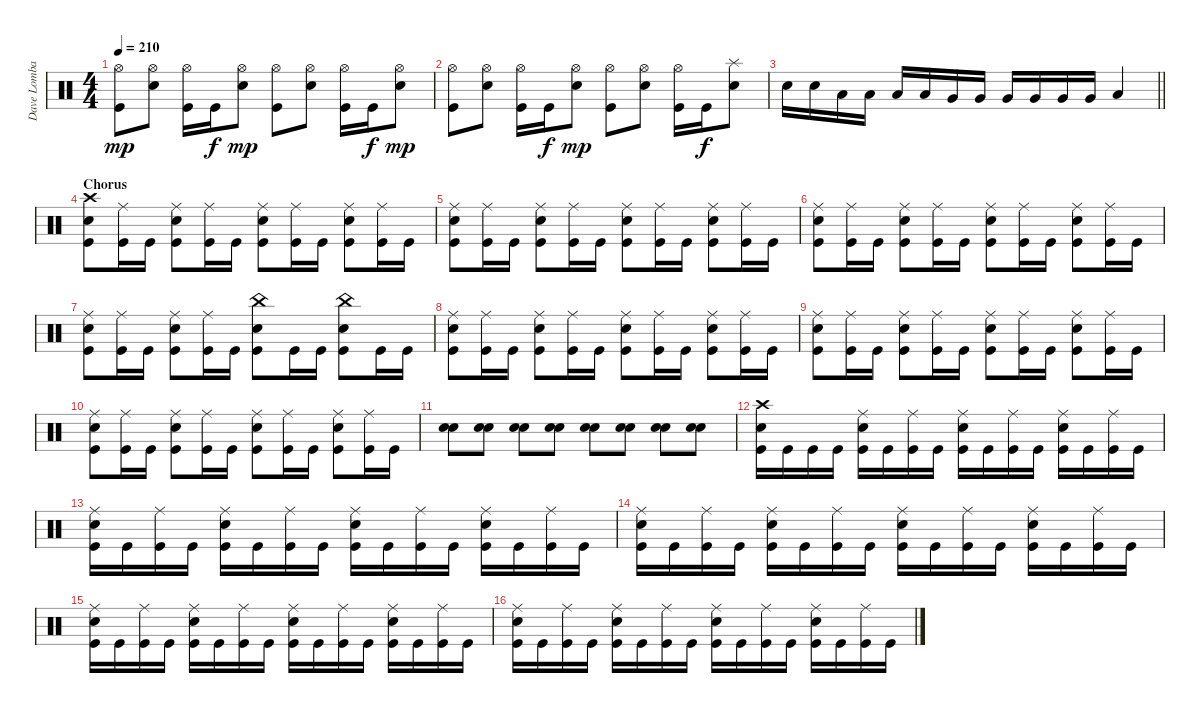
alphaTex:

\track ("Dave Lombardo" "Dave Lomba") {instrument percussion}
\staff {score}
\articulation defaults
\ts (4 4)
\tempo 210
\clef neutral
\ks c
("Hi-Hat (open)" "Kick (hit)").8{dy mp} ("Hi-Hat (open)" "Electric Snare (hit)").8 ("Hi-Hat (open)" "Kick (hit)").16 "Kick (hit)".16{dy f} ("Hi-Hat (open)" "Electric Snare (hit)").8{dy mp} ("Hi-Hat (open)" "Kick (hit)").8 ("Hi-Hat (open)" "Electric Snare (hit)").8 ("Hi-Hat (open)" "Kick (hit)").16 "Kick (hit)".16{dy f} ("Hi-Hat (open)" "Electric Snare (hit)").8{dy mp} |
("Hi-Hat (open)" "Kick (hit)").8 ("Hi-Hat (open)" "Electric Snare (hit)").8 ("Hi-Hat (open)" "Kick (hit)").16 "Kick (hit)".16{dy f} ("Hi-Hat (open)" "Electric Snare (hit)").8{dy mp} ("Hi-Hat (open)" "Kick (hit)").8 ("Hi-Hat (open)" "Electric Snare (hit)").8 ("Hi-Hat (open)" "Kick (hit)").16 "Kick (hit)".16{dy f} ("Splash (hit)" "Electric Snare (hit)").8 |
\barLineRight lightlight "Electric Snare (hit)".16 "Electric Snare (hit)".16 "Low Tom (hit)".16 "Low Tom (hit)".16 "Low Tom (hit)".16 "Low Tom (hit)".16 "Very Low Tom (hit)".16 "Very Low Tom (hit)".16 "Very Low Tom (hit)".16 "Very Low Tom (hit)".16 "Very Low Tom (hit)".16 "Very Low Tom (hit)".16 "Low Floor Tom (hit)".4
|
\section ("" "Chorus")
("Crash high (hit)" "Electric Snare (hit)" "Kick (hit)").8 ("Ride (middle)" "Kick (hit)").16 "Kick (hit)".16 ("Ride (middle)" "Electric Snare (hit)" "Kick (hit)").8 ("Ride (middle)" "Kick (hit)").16 "Kick (hit)".16 ("Ride (middle)" "Electric Snare (hit)" "Kick (hit)").8 ("Ride (middle)" "Kick (hit)").16 "Kick (hit)".16 ("Ride (middle)" "Electric Snare (hit)" "Kick (hit)").8 ("Ride (middle)" "Kick (hit)").16 "Kick (hit)".16 |
("Ride (middle)" "Electric Snare (hit)" "Kick (hit)").8 ("Ride (middle)" "Kick (hit)").16 "Kick (hit)".16 ("Ride (middle)" "Electric Snare (hit)" "Kick (hit)").8 ("Ride (middle)" "Kick (hit)").16 "Kick (hit)".16 ("Ride (middle)" "Electric Snare (hit)" "Kick (hit)").8 ("Ride (middle)" "Kick (hit)").16 "Kick (hit)".16 ("Ride (middle)" "Electric Snare (hit)" "Kick (hit)").8 ("Ride (middle)" "Kick (hit)").16 "Kick (hit)".16 |
("Ride (middle)" "Electric Snare (hit)" "Kick (hit)").8 ("Ride (middle)" "Kick (hit)").16 "Kick (hit)".16 ("Ride (middle)" "Electric Snare (hit)" "Kick (hit)").8 ("Ride (middle)" "Kick (hit)").16 "Kick (hit)".16 ("Ride (middle)" "Electric Snare (hit)" "Kick (hit)").8 ("Ride (middle)" "Kick (hit)").16 "Kick (hit)".16 ("Ride (middle)" "Electric Snare (hit)" "Kick (hit)").8 ("Ride (middle)" "Kick (hit)").16 "Kick (hit)".16 |
("Ride (middle)" "Electric Snare (hit)" "Kick (hit)").8 ("Ride (middle)" "Kick (hit)").16 "Kick (hit)".16 ("Ride (middle)" "Electric Snare (hit)" "Kick (hit)").8 ("Ride (middle)" "Kick (hit)").16 "Kick (hit)".16 ("China (hit)" "Electric Snare (hit)" "Kick (hit)").8 "Kick (hit)".16 "Kick (hit)".16 ("China (hit)" "Electric Snare (hit)" "Kick (hit)").8 "Kick (hit)".16 "Kick (hit)".16 |
("Ride (middle)" "Electric Snare (hit)" "Kick (hit)").8 ("Ride (middle)" "Kick (hit)").16 "Kick (hit)".16 ("Ride (middle)" "Electric Snare (hit)" "Kick (hit)").8 ("Ride (middle)" "Kick (hit)").16 "Kick (hit)".16 ("Ride (middle)" "Electric Snare (hit)" "Kick (hit)").8 ("Ride (middle)" "Kick (hit)").16 "Kick (hit)".16 ("Ride (middle)" "Electric Snare (hit)" "Kick (hit)").8 ("Ride (middle)" "Kick (hit)").16 "Kick (hit)".16 |
("Ride (middle)" "Electric Snare (hit)" "Kick (hit)").8 ("Ride (middle)" "Kick (hit)").16 "Kick (hit)".16 ("Ride (middle)" "Electric Snare (hit)" "Kick (hit)").8 ("Ride (middle)" "Kick (hit)").16 "Kick (hit)".16 ("Ride (middle)" "Electric Snare (hit)" "Kick (hit)").8 ("Ride (middle)" "Kick (hit)").16 "Kick (hit)".16 ("Ride (middle)" "Electric Snare (hit)" "Kick (hit)").8 ("Ride (middle)" "Kick (hit)").16 "Kick (hit)".16 |
("Ride (middle)" "Electric Snare (hit)" "Kick (hit)").8 ("Ride (middle)" "Kick (hit)").16 "Kick (hit)".16 ("Ride (middle)" "Electric Snare (hit)" "Kick (hit)").8 ("Ride (middle)" "Kick (hit)").16 "Kick (hit)".16 ("Ride (middle)" "Electric Snare (hit)" "Kick (hit)").8 ("Ride (middle)" "Kick (hit)").16 "Kick (hit)".16 ("Ride (middle)" "Electric Snare (hit)" "Kick (hit)").8 ("Ride (middle)" "Kick (hit)").16 "Kick (hit)".16 |
("Snare (hit) 2" "Electric Snare (hit)").8 ("Snare (hit) 2" "Electric Snare (hit)").8 ("Snare (hit) 2" "Electric Snare (hit)").8 ("Snare (hit) 2" "Electric Snare (hit)").8 ("Snare (hit) 2" "Electric Snare (hit)").8 ("Snare (hit) 2" "Electric Snare (hit)").8 ("Snare (hit) 2" "Electric Snare (hit)").8 ("Snare (hit) 2" "Electric Snare (hit)").8 |
("Crash high (hit)" "Electric Snare (hit)" "Kick (hit)").16 "Kick (hit)".16 "Kick (hit)".16 "Kick (hit)".16 ("Ride (middle)" "Electric Snare (hit)" "Kick (hit)").16 "Kick (hit)".16 ("Ride (middle)" "Kick (hit)").16 "Kick (hit)".16 ("Ride (middle)" "Electric Snare (hit)" "Kick (hit)").16 "Kick (hit)".16 ("Ride (middle)" "Kick (hit)").16 "Kick (hit)".16 ("Ride (middle)" "Electric Snare (hit)" "Kick (hit)").16 "Kick (hit)".16 ("Ride (middle)" "Kick (hit)").16 "Kick (hit)".16 |
("Ride (middle)" "Electric Snare (hit)" "Kick (hit)").16 "Kick (hit)".16 ("Ride (middle)" "Kick (hit)").16 "Kick (hit)".16 ("Ride (middle)" "Electric Snare (hit)" "Kick (hit)").16 "Kick (hit)".16 ("Ride (middle)" "Kick (hit)").16 "Kick (hit)".16 ("Ride (middle)" "Electric Snare (hit)" "Kick (hit)").16 "Kick (hit)".16 ("Ride (middle)" "Kick (hit)").16 "Kick (hit)".16 ("Ride (middle)" "Electric Snare (hit)" "Kick (hit)").16 "Kick (hit)".16 ("Ride (middle)" "Kick (hit)").16 "Kick (hit)".16 |
("Ride (middle)" "Electric Snare (hit)" "Kick (hit)").16 "Kick (hit)".16 ("Ride (middle)" "Kick (hit)").16 "Kick (hit)".16 ("Ride (middle)" "Electric Snare (hit)" "Kick (hit)").16 "Kick (hit)".16 ("Ride (middle)" "Kick (hit)").16 "Kick (hit)".16 ("Ride (middle)" "Electric Snare (hit)" "Kick (hit)").16 "Kick (hit)".16 ("Ride (middle)" "Kick (hit)").16 "Kick (hit)".16 ("Ride (middle)" "Electric Snare (hit)" "Kick (hit)").16 "Kick (hit)".16 ("Ride (middle)" "Kick (hit)").16 "Kick (hit)".16 |
("Ride (middle)" "Electric Snare (hit)" "Kick (hit)").16 "Kick (hit)".16 ("Ride (middle)" "Kick (hit)").16 "Kick (hit)".16 ("Ride (middle)" "Electric Snare (hit)" "Kick (hit)").16 "Kick (hit)".16 ("Ride (middle)" "Kick (hit)").16 "Kick (hit)".16 ("Ride (middle)" "Electric Snare (hit)" "Kick (hit)").16 "Kick (hit)".16 ("Ride (middle)" "Kick (hit)").16 "Kick (hit)".16 ("Ride (middle)" "Electric Snare (hit)" "Kick (hit)").16 "Kick (hit)".16 ("Ride (middle)" "Kick (hit)").16 "Kick (hit)".16 |
("Ride (middle)" "Electric Snare (hit)" "Kick (hit)").16 "Kick (hit)".16 ("Ride (middle)" "Kick (hit)").16 "Kick (hit)".16 ("Ride (middle)" "Electric Snare (hit)" "Kick (hit)").16 "Kick (hit)".16 ("Ride (middle)" "Kick (hit)").16 "Kick (hit)".16 ("Ride (middle)" "Electric Snare (hit)" "Kick (hit)").16 "Kick (hit)".16 ("Ride (middle)" "Kick (hit)").16 "Kick (hit)".16 ("Ride (middle)" "Electric Snare (hit)" "Kick (hit)").16 "Kick (hit)".16 ("Ride (middle)" "Kick (hit)").16 "Kick (hit)".16
